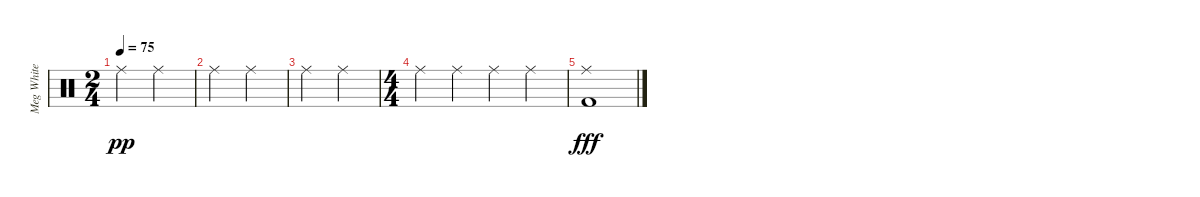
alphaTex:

\track ("Meg White (Drums)" "Meg White ") {instrument percussion}
\staff {score}
\articulation defaults
\ts (2 4)
\tempo 75
\clef neutral
\ks c "Ride (middle)".4{dy pp} "Ride (middle)".4
|
"Ride (middle)".4 "Ride (middle)".4 |
"Ride (middle)".4 "Ride (middle)".4 |
\ts (4 4)
"Ride (middle)".4 "Ride (middle)".4 "Ride (middle)".4 "Ride (middle)".4 |
("Kick (hit) 2" "Ride (middle)").1{dy fff}
